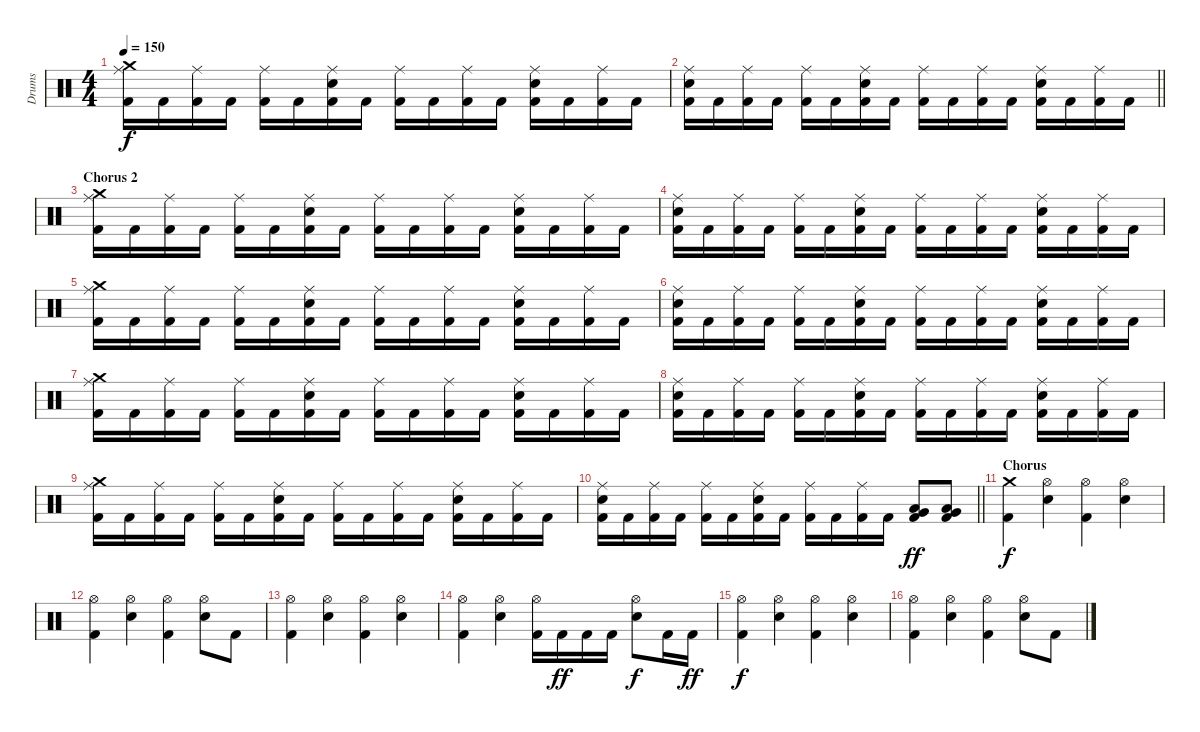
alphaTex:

\track ("Drums" "Drums") {instrument percussion}
\staff {score}
\articulation defaults
\ts (4 4)
\tempo 150
\clef neutral
\ks c
("Crash medium (hit)" "Ride (middle)" "Kick (hit) 2").16{dy f} "Kick (hit) 2".16 ("Ride (middle)" "Kick (hit) 2").16 "Kick (hit) 2".16 ("Ride (middle)" "Kick (hit) 2").16 "Kick (hit) 2".16 ("Ride (middle)" "Electric Snare (hit)" "Kick (hit) 2").16 "Kick (hit) 2".16 ("Ride (middle)" "Kick (hit) 2").16 "Kick (hit) 2".16 ("Ride (middle)" "Kick (hit) 2").16 "Kick (hit) 2".16 ("Ride (middle)" "Electric Snare (hit)" "Kick (hit) 2").16 "Kick (hit) 2".16 ("Ride (middle)" "Kick (hit) 2").16 "Kick (hit) 2".16 |
\barLineRight lightlight
("Ride (middle)" "Electric Snare (hit)" "Kick (hit) 2").16 "Kick (hit) 2".16 ("Ride (middle)" "Kick (hit) 2").16 "Kick (hit) 2".16 ("Ride (middle)" "Kick (hit) 2").16 "Kick (hit) 2".16 ("Ride (middle)" "Electric Snare (hit)" "Kick (hit) 2").16 "Kick (hit) 2".16 ("Ride (middle)" "Kick (hit) 2").16 "Kick (hit) 2".16 ("Ride (middle)" "Kick (hit) 2").16 "Kick (hit) 2".16 ("Ride (middle)" "Electric Snare (hit)" "Kick (hit) 2").16 "Kick (hit) 2".16 ("Ride (middle)" "Kick (hit) 2").16 "Kick (hit) 2".16 |
\section ("" "Chorus 2")
("Crash medium (hit)" "Ride (middle)" "Kick (hit) 2").16 "Kick (hit) 2".16 ("Ride (middle)" "Kick (hit) 2").16 "Kick (hit) 2".16 ("Ride (middle)" "Kick (hit) 2").16 "Kick (hit) 2".16 ("Ride (middle)" "Electric Snare (hit)" "Kick (hit) 2").16 "Kick (hit) 2".16 ("Ride (middle)" "Kick (hit) 2").16 "Kick (hit) 2".16 ("Ride (middle)" "Kick (hit) 2").16 "Kick (hit) 2".16 ("Ride (middle)" "Electric Snare (hit)" "Kick (hit) 2").16 "Kick (hit) 2".16 ("Ride (middle)" "Kick (hit) 2").16 "Kick (hit) 2".16 |
("Ride (middle)" "Electric Snare (hit)" "Kick (hit) 2").16 "Kick (hit) 2".16 ("Ride (middle)" "Kick (hit) 2").16 "Kick (hit) 2".16 ("Ride (middle)" "Kick (hit) 2").16 "Kick (hit) 2".16 ("Ride (middle)" "Electric Snare (hit)" "Kick (hit) 2").16 "Kick (hit) 2".16 ("Ride (middle)" "Kick (hit) 2").16 "Kick (hit) 2".16 ("Ride (middle)" "Kick (hit) 2").16 "Kick (hit) 2".16 ("Ride (middle)" "Electric Snare (hit)" "Kick (hit) 2").16 "Kick (hit) 2".16 ("Ride (middle)" "Kick (hit) 2").16 "Kick (hit) 2".16 |
("Crash medium (hit)" "Ride (middle)" "Kick (hit) 2").16 "Kick (hit) 2".16 ("Ride (middle)" "Kick (hit) 2").16 "Kick (hit) 2".16 ("Ride (middle)" "Kick (hit) 2").16 "Kick (hit) 2".16 ("Ride (middle)" "Electric Snare (hit)" "Kick (hit) 2").16 "Kick (hit) 2".16 ("Ride (middle)" "Kick (hit) 2").16 "Kick (hit) 2".16 ("Ride (middle)" "Kick (hit) 2").16 "Kick (hit) 2".16 ("Ride (middle)" "Electric Snare (hit)" "Kick (hit) 2").16 "Kick (hit) 2".16 ("Ride (middle)" "Kick (hit) 2").16 "Kick (hit) 2".16 |
("Ride (middle)" "Electric Snare (hit)" "Kick (hit) 2").16 "Kick (hit) 2".16 ("Ride (middle)" "Kick (hit) 2").16 "Kick (hit) 2".16 ("Ride (middle)" "Kick (hit) 2").16 "Kick (hit) 2".16 ("Ride (middle)" "Electric Snare (hit)" "Kick (hit) 2").16 "Kick (hit) 2".16 ("Ride (middle)" "Kick (hit) 2").16 "Kick (hit) 2".16 ("Ride (middle)" "Kick (hit) 2").16 "Kick (hit) 2".16 ("Ride (middle)" "Electric Snare (hit)" "Kick (hit) 2").16 "Kick (hit) 2".16 ("Ride (middle)" "Kick (hit) 2").16 "Kick (hit) 2".16 |
("Crash medium (hit)" "Ride (middle)" "Kick (hit) 2").16 "Kick (hit) 2".16 ("Ride (middle)" "Kick (hit) 2").16 "Kick (hit) 2".16 ("Ride (middle)" "Kick (hit) 2").16 "Kick (hit) 2".16 ("Ride (middle)" "Electric Snare (hit)" "Kick (hit) 2").16 "Kick (hit) 2".16 ("Ride (middle)" "Kick (hit) 2").16 "Kick (hit) 2".16 ("Ride (middle)" "Kick (hit) 2").16 "Kick (hit) 2".16 ("Ride (middle)" "Electric Snare (hit)" "Kick (hit) 2").16 "Kick (hit) 2".16 ("Ride (middle)" "Kick (hit) 2").16 "Kick (hit) 2".16 |
("Ride (middle)" "Electric Snare (hit)" "Kick (hit) 2").16 "Kick (hit) 2".16 ("Ride (middle)" "Kick (hit) 2").16 "Kick (hit) 2".16 ("Ride (middle)" "Kick (hit) 2").16 "Kick (hit) 2".16 ("Ride (middle)" "Electric Snare (hit)" "Kick (hit) 2").16 "Kick (hit) 2".16 ("Ride (middle)" "Kick (hit) 2").16 "Kick (hit) 2".16 ("Ride (middle)" "Kick (hit) 2").16 "Kick (hit) 2".16 ("Ride (middle)" "Electric Snare (hit)" "Kick (hit) 2").16 "Kick (hit) 2".16 ("Ride (middle)" "Kick (hit) 2").16 "Kick (hit) 2".16 |
("Crash medium (hit)" "Ride (middle)" "Kick (hit) 2").16 "Kick (hit) 2".16 ("Ride (middle)" "Kick (hit) 2").16 "Kick (hit) 2".16 ("Ride (middle)" "Kick (hit) 2").16 "Kick (hit) 2".16 ("Ride (middle)" "Electric Snare (hit)" "Kick (hit) 2").16 "Kick (hit) 2".16 ("Ride (middle)" "Kick (hit) 2").16 "Kick (hit) 2".16 ("Ride (middle)" "Kick (hit) 2").16 "Kick (hit) 2".16 ("Ride (middle)" "Electric Snare (hit)" "Kick (hit) 2").16 "Kick (hit) 2".16 ("Ride (middle)" "Kick (hit) 2").16 "Kick (hit) 2".16 |
\barLineRight lightlight
("Ride (middle)" "Electric Snare (hit)" "Kick (hit) 2").16 "Kick (hit) 2".16 ("Ride (middle)" "Kick (hit) 2").16 "Kick (hit) 2".16 ("Ride (middle)" "Kick (hit) 2").16 "Kick (hit) 2".16 ("Ride (middle)" "Electric Snare (hit)" "Kick (hit) 2").16 "Kick (hit) 2".16 ("Ride (middle)" "Kick (hit) 2").16 "Kick (hit) 2".16 ("Ride (middle)" "Kick (hit) 2").16 "Kick (hit) 2".16 ("Low Tom (hit)" "Very Low Tom (hit)" "Kick (hit) 2").8{dy ff} ("Low Tom (hit)" "Very Low Tom (hit)" "Kick (hit) 2").8 |
\section ("" "Chorus")
("Crash medium (hit)" "Kick (hit) 2").4{dy f} ("Hi-Hat (open)" "Electric Snare (hit)").4 ("Hi-Hat (open)" "Kick (hit) 2").4 ("Hi-Hat (open)" "Electric Snare (hit)").4 |
("Hi-Hat (open)" "Kick (hit) 2").4 ("Hi-Hat (open)" "Electric Snare (hit)").4 ("Hi-Hat (open)" "Kick (hit) 2").4 ("Hi-Hat (open)" "Electric Snare (hit)").8 "Kick (hit) 2".8 |
("Hi-Hat (open)" "Kick (hit) 2").4 ("Hi-Hat (open)" "Electric Snare (hit)").4 ("Hi-Hat (open)" "Kick (hit) 2").4 ("Hi-Hat (open)" "Electric Snare (hit)").4 |
("Hi-Hat (open)" "Kick (hit) 2").4 ("Hi-Hat (open)" "Electric Snare (hit)").4 ("Hi-Hat (open)" "Kick (hit) 2").16 "Kick (hit) 2".16{dy ff} "Kick (hit) 2".16 "Kick (hit) 2".16 ("Hi-Hat (open)" "Electric Snare (hit)").8{dy f} "Kick (hit) 2".16 "Kick (hit) 2".16{dy ff} |
("Hi-Hat (open)" "Kick (hit) 2").4{dy f} ("Hi-Hat (open)" "Electric Snare (hit)").4 ("Hi-Hat (open)" "Kick (hit) 2").4 ("Hi-Hat (open)" "Electric Snare (hit)").4 |
("Hi-Hat (open)" "Kick (hit) 2").4 ("Hi-Hat (open)" "Electric Snare (hit)").4 ("Hi-Hat (open)" "Kick (hit) 2").4 ("Hi-Hat (open)" "Electric Snare (hit)").8 "Kick (hit) 2".8
